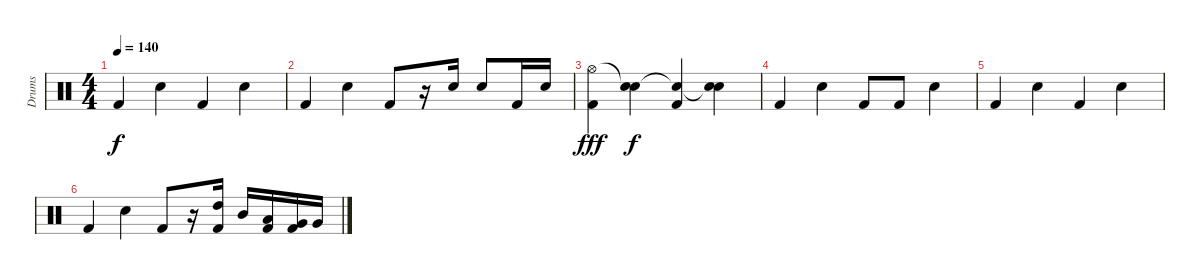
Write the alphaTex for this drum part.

\track ("Drums" "Drums") {instrument percussion}
\staff {score}
\articulation defaults
\ts (4 4)
\tempo 140
\clef neutral
\ks c "Kick (hit) 2".4{dy f} "Snare (hit) 2".4 "Kick (hit) 2".4 "Snare (hit) 2".4
|
"Kick (hit) 2".4 "Snare (hit) 2".4 "Kick (hit) 2".8 r.16 "Snare (hit) 2".16 "Snare (hit) 2".8 "Kick (hit) 2".16 "Snare (hit) 2".16 |
("Hi-Hat (open)" "Kick (hit) 2").4{dy fff} ("Snare (hit)"{t} "Snare (hit) 2").4{dy f} ("Snare (hit)"{t} "Kick (hit) 2").4 ("Snare (hit)"{t} "Snare (hit) 2").4 |
"Kick (hit) 2".4 "Snare (hit) 2".4 "Kick (hit) 2".8 "Kick (hit) 2".8 "Snare (hit) 2".4 |
"Kick (hit) 2".4{volume 2} "Snare (hit) 2".4 "Kick (hit) 2".4 "Snare (hit) 2".4 |
"Kick (hit) 2".4 "Snare (hit) 2".4 "Kick (hit) 2".8 r.16 ("High Tom (hit)" "Kick (hit) 2").16 "Mid Tom (hit)".16 ("Low Tom (hit)" "Kick (hit) 2").16 ("Very Low Tom (hit)" "Kick (hit) 2").16 "Very Low Tom (hit)".16
